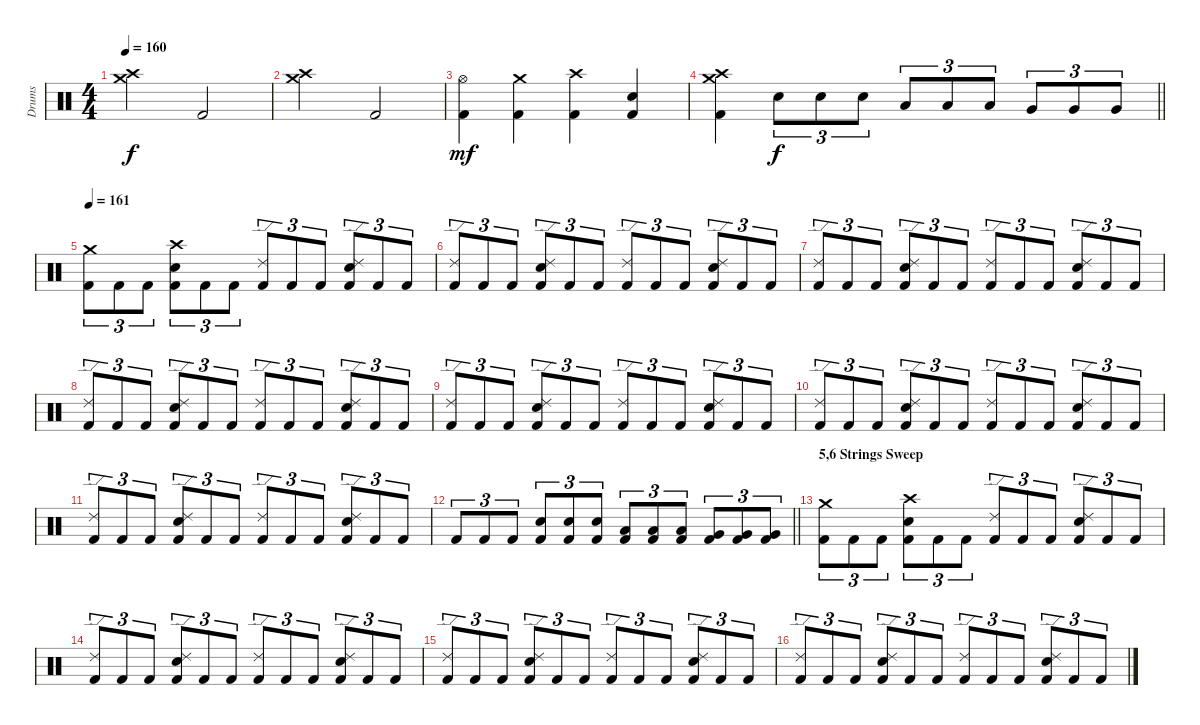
\track ("Drums" "Drums") {instrument percussion}
\staff {score}
\articulation defaults
\ts (4 4)
\tempo 160
\clef neutral
\ks c
("Crash medium (hit)" "Crash high (hit)").2{dy f} "Kick (hit) 2".2 |
("Crash medium (hit)" "Crash high (hit)").2 "Kick (hit) 2".2 |
("Hi-Hat (open)" "Kick (hit) 2").4{dy mf} ("Crash medium (hit)" "Kick (hit) 2").4 ("Crash high (hit)" "Kick (hit) 2").4 ("Snare (hit) 2" "Kick (hit) 2").4 |
\barLineRight lightlight
("Crash high (hit)" "Crash medium (hit)" "Kick (hit) 2").4 "Snare (hit) 2".8{tu (3 2) dy f} "Snare (hit) 2".8{tu (3 2)} "Snare (hit) 2".8{tu (3 2)} "Low Tom (hit)".8{tu (3 2)} "Low Tom (hit)".8{tu (3 2)} "Low Tom (hit)".8{tu (3 2)} "Very Low Tom (hit)".8{tu (3 2)} "Very Low Tom (hit)".8{tu (3 2)} "Very Low Tom (hit)".8{tu (3 2)} |
\section ("" "")
\tempo 161
("Crash medium (hit)" "Kick (hit) 2").8{tu (3 2)} "Kick (hit) 2".8{tu (3 2)} "Kick (hit) 2".8{tu (3 2)} ("Crash high (hit)" "Snare (hit) 2" "Kick (hit) 2").8{tu (3 2)} "Kick (hit) 2".8{tu (3 2)} "Kick (hit) 2".8{tu (3 2)} ("Ride (edge) 2" "Kick (hit) 2").8{tu (3 2)} "Kick (hit) 2".8{tu (3 2)} "Kick (hit) 2".8{tu (3 2)} ("Ride (edge) 2" "Snare (hit) 2" "Kick (hit) 2").8{tu (3 2)} "Kick (hit) 2".8{tu (3 2)} "Kick (hit) 2".8{tu (3 2)} |
("Ride (edge) 2" "Kick (hit) 2").8{tu (3 2)} "Kick (hit) 2".8{tu (3 2)} "Kick (hit) 2".8{tu (3 2)} ("Ride (edge) 2" "Snare (hit) 2" "Kick (hit) 2").8{tu (3 2)} "Kick (hit) 2".8{tu (3 2)} "Kick (hit) 2".8{tu (3 2)} ("Ride (edge) 2" "Kick (hit) 2").8{tu (3 2)} "Kick (hit) 2".8{tu (3 2)} "Kick (hit) 2".8{tu (3 2)} ("Ride (edge) 2" "Snare (hit) 2" "Kick (hit) 2").8{tu (3 2)} "Kick (hit) 2".8{tu (3 2)} "Kick (hit) 2".8{tu (3 2)} |
("Ride (edge) 2" "Kick (hit) 2").8{tu (3 2)} "Kick (hit) 2".8{tu (3 2)} "Kick (hit) 2".8{tu (3 2)} ("Ride (edge) 2" "Snare (hit) 2" "Kick (hit) 2").8{tu (3 2)} "Kick (hit) 2".8{tu (3 2)} "Kick (hit) 2".8{tu (3 2)} ("Ride (edge) 2" "Kick (hit) 2").8{tu (3 2)} "Kick (hit) 2".8{tu (3 2)} "Kick (hit) 2".8{tu (3 2)} ("Ride (edge) 2" "Snare (hit) 2" "Kick (hit) 2").8{tu (3 2)} "Kick (hit) 2".8{tu (3 2)} "Kick (hit) 2".8{tu (3 2)} |
("Ride (edge) 2" "Kick (hit) 2").8{tu (3 2)} "Kick (hit) 2".8{tu (3 2)} "Kick (hit) 2".8{tu (3 2)} ("Ride (edge) 2" "Snare (hit) 2" "Kick (hit) 2").8{tu (3 2)} "Kick (hit) 2".8{tu (3 2)} "Kick (hit) 2".8{tu (3 2)} ("Ride (edge) 2" "Kick (hit) 2").8{tu (3 2)} "Kick (hit) 2".8{tu (3 2)} "Kick (hit) 2".8{tu (3 2)} ("Ride (edge) 2" "Snare (hit) 2" "Kick (hit) 2").8{tu (3 2)} "Kick (hit) 2".8{tu (3 2)} "Kick (hit) 2".8{tu (3 2)} |
("Ride (edge) 2" "Kick (hit) 2").8{tu (3 2)} "Kick (hit) 2".8{tu (3 2)} "Kick (hit) 2".8{tu (3 2)} ("Ride (edge) 2" "Snare (hit) 2" "Kick (hit) 2").8{tu (3 2)} "Kick (hit) 2".8{tu (3 2)} "Kick (hit) 2".8{tu (3 2)} ("Ride (edge) 2" "Kick (hit) 2").8{tu (3 2)} "Kick (hit) 2".8{tu (3 2)} "Kick (hit) 2".8{tu (3 2)} ("Ride (edge) 2" "Snare (hit) 2" "Kick (hit) 2").8{tu (3 2)} "Kick (hit) 2".8{tu (3 2)} "Kick (hit) 2".8{tu (3 2)} |
("Ride (edge) 2" "Kick (hit) 2").8{tu (3 2)} "Kick (hit) 2".8{tu (3 2)} "Kick (hit) 2".8{tu (3 2)} ("Ride (edge) 2" "Snare (hit) 2" "Kick (hit) 2").8{tu (3 2)} "Kick (hit) 2".8{tu (3 2)} "Kick (hit) 2".8{tu (3 2)} ("Ride (edge) 2" "Kick (hit) 2").8{tu (3 2)} "Kick (hit) 2".8{tu (3 2)} "Kick (hit) 2".8{tu (3 2)} ("Ride (edge) 2" "Snare (hit) 2" "Kick (hit) 2").8{tu (3 2)} "Kick (hit) 2".8{tu (3 2)} "Kick (hit) 2".8{tu (3 2)} |
("Ride (edge) 2" "Kick (hit) 2").8{tu (3 2)} "Kick (hit) 2".8{tu (3 2)} "Kick (hit) 2".8{tu (3 2)} ("Ride (edge) 2" "Snare (hit) 2" "Kick (hit) 2").8{tu (3 2)} "Kick (hit) 2".8{tu (3 2)} "Kick (hit) 2".8{tu (3 2)} ("Ride (edge) 2" "Kick (hit) 2").8{tu (3 2)} "Kick (hit) 2".8{tu (3 2)} "Kick (hit) 2".8{tu (3 2)} ("Ride (edge) 2" "Snare (hit) 2" "Kick (hit) 2").8{tu (3 2)} "Kick (hit) 2".8{tu (3 2)} "Kick (hit) 2".8{tu (3 2)} |
\barLineRight lightlight "Kick (hit) 2".8{tu (3 2)} "Kick (hit) 2".8{tu (3 2)} "Kick (hit) 2".8{tu (3 2)}
("Snare (hit) 2" "Kick (hit) 2").8{tu (3 2)} ("Snare (hit) 2" "Kick (hit) 2").8{tu (3 2)} ("Snare (hit) 2" "Kick (hit) 2").8{tu (3 2)} ("Low Tom (hit)" "Kick (hit) 2").8{tu (3 2)} ("Low Tom (hit)" "Kick (hit) 2").8{tu (3 2)} ("Low Tom (hit)" "Kick (hit) 2").8{tu (3 2)} ("Very Low Tom (hit)" "Kick (hit) 2").8{tu (3 2)} ("Very Low Tom (hit)" "Kick (hit) 2").8{tu (3 2)} ("Very Low Tom (hit)" "Kick (hit) 2").8{tu (3 2)} |
\section ("" "5,6 Strings Sweep ")
("Crash medium (hit)" "Kick (hit) 2").8{tu (3 2)} "Kick (hit) 2".8{tu (3 2)} "Kick (hit) 2".8{tu (3 2)} ("Crash high (hit)" "Snare (hit) 2" "Kick (hit) 2").8{tu (3 2)} "Kick (hit) 2".8{tu (3 2)} "Kick (hit) 2".8{tu (3 2)} ("Ride (edge) 2" "Kick (hit) 2").8{tu (3 2)} "Kick (hit) 2".8{tu (3 2)} "Kick (hit) 2".8{tu (3 2)} ("Ride (edge) 2" "Snare (hit) 2" "Kick (hit) 2").8{tu (3 2)} "Kick (hit) 2".8{tu (3 2)} "Kick (hit) 2".8{tu (3 2)} |
\ks aminor
("Ride (edge) 2" "Kick (hit) 2").8{tu (3 2)} "Kick (hit) 2".8{tu (3 2)} "Kick (hit) 2".8{tu (3 2)} ("Ride (edge) 2" "Snare (hit) 2" "Kick (hit) 2").8{tu (3 2)} "Kick (hit) 2".8{tu (3 2)} "Kick (hit) 2".8{tu (3 2)} ("Ride (edge) 2" "Kick (hit) 2").8{tu (3 2)} "Kick (hit) 2".8{tu (3 2)} "Kick (hit) 2".8{tu (3 2)} ("Ride (edge) 2" "Snare (hit) 2" "Kick (hit) 2").8{tu (3 2)} "Kick (hit) 2".8{tu (3 2)} "Kick (hit) 2".8{tu (3 2)} |
("Ride (edge) 2" "Kick (hit) 2").8{tu (3 2)} "Kick (hit) 2".8{tu (3 2)} "Kick (hit) 2".8{tu (3 2)} ("Ride (edge) 2" "Snare (hit) 2" "Kick (hit) 2").8{tu (3 2)} "Kick (hit) 2".8{tu (3 2)} "Kick (hit) 2".8{tu (3 2)} ("Ride (edge) 2" "Kick (hit) 2").8{tu (3 2)} "Kick (hit) 2".8{tu (3 2)} "Kick (hit) 2".8{tu (3 2)} ("Ride (edge) 2" "Snare (hit) 2" "Kick (hit) 2").8{tu (3 2)} "Kick (hit) 2".8{tu (3 2)} "Kick (hit) 2".8{tu (3 2)} |
("Ride (edge) 2" "Kick (hit) 2").8{tu (3 2)} "Kick (hit) 2".8{tu (3 2)} "Kick (hit) 2".8{tu (3 2)} ("Ride (edge) 2" "Snare (hit) 2" "Kick (hit) 2").8{tu (3 2)} "Kick (hit) 2".8{tu (3 2)} "Kick (hit) 2".8{tu (3 2)} ("Ride (edge) 2" "Kick (hit) 2").8{tu (3 2)} "Kick (hit) 2".8{tu (3 2)} "Kick (hit) 2".8{tu (3 2)} ("Ride (edge) 2" "Snare (hit) 2" "Kick (hit) 2").8{tu (3 2)} "Kick (hit) 2".8{tu (3 2)} "Kick (hit) 2".8{tu (3 2)}
